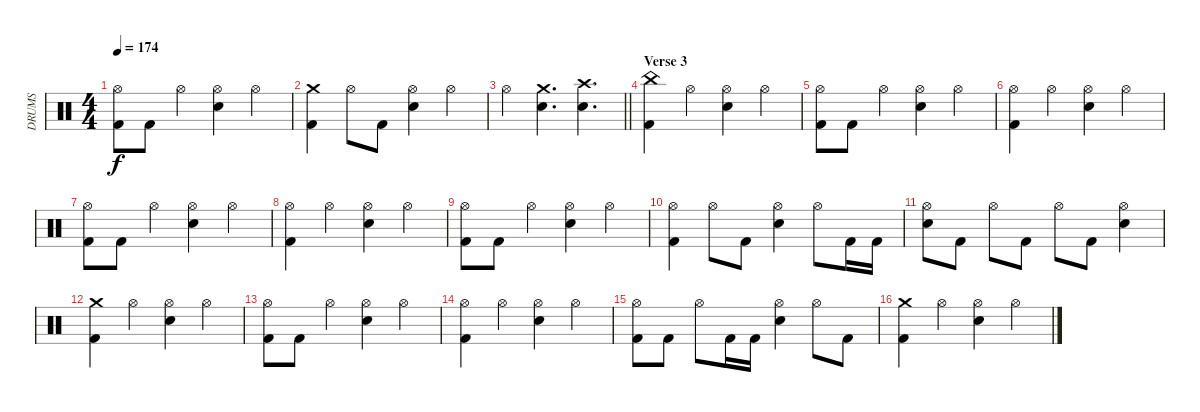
\track ("DRUMS" "DRUMS") {instrument percussion}
\staff {score}
\articulation defaults
\ts (4 4)
\tempo 174
\clef neutral
\ks c
("Hi-Hat (open)" "Kick (hit) 2").8{dy f} "Kick (hit) 2".8 "Hi-Hat (open)".4 ("Hi-Hat (open)" "Snare (hit) 2").4 "Hi-Hat (open)".4 |
("Crash medium (hit)" "Kick (hit) 2").4 "Hi-Hat (open)".8 "Kick (hit) 2".8 ("Hi-Hat (open)" "Snare (hit) 2").4 "Hi-Hat (open)".4 |
\barLineRight lightlight "Hi-Hat (open)".4
("Crash medium (hit)" "Snare (hit) 2").4{d} ("Crash high (hit)" "Snare (hit) 2").4{d} |
\section ("" "Verse 3")
("China (hit)" "Kick (hit) 2").4 "Hi-Hat (open)".4 ("Hi-Hat (open)" "Snare (hit) 2").4 "Hi-Hat (open)".4 |
("Hi-Hat (open)" "Kick (hit) 2").8 "Kick (hit) 2".8 "Hi-Hat (open)".4 ("Hi-Hat (open)" "Snare (hit) 2").4 "Hi-Hat (open)".4 |
("Hi-Hat (open)" "Kick (hit) 2").4 "Hi-Hat (open)".4 ("Hi-Hat (open)" "Snare (hit) 2").4 "Hi-Hat (open)".4 |
("Hi-Hat (open)" "Kick (hit) 2").8 "Kick (hit) 2".8 "Hi-Hat (open)".4 ("Hi-Hat (open)" "Snare (hit) 2").4 "Hi-Hat (open)".4 |
("Hi-Hat (open)" "Kick (hit) 2").4 "Hi-Hat (open)".4 ("Hi-Hat (open)" "Snare (hit) 2").4 "Hi-Hat (open)".4 |
("Hi-Hat (open)" "Kick (hit) 2").8 "Kick (hit) 2".8 "Hi-Hat (open)".4 ("Hi-Hat (open)" "Snare (hit) 2").4 "Hi-Hat (open)".4 |
("Hi-Hat (open)" "Kick (hit) 2").4 "Hi-Hat (open)".8 "Kick (hit) 2".8 ("Hi-Hat (open)" "Snare (hit) 2").4 "Hi-Hat (open)".8 "Kick (hit) 2".16 "Kick (hit) 2".16 |
("Hi-Hat (open)" "Snare (hit) 2").8 "Kick (hit) 2".8 "Hi-Hat (open)".8 "Kick (hit) 2".8 "Hi-Hat (open)".8 "Kick (hit) 2".8 ("Hi-Hat (open)" "Snare (hit) 2").4 |
("Crash medium (hit)" "Kick (hit) 2").4 "Hi-Hat (open)".4 ("Hi-Hat (open)" "Snare (hit) 2").4 "Hi-Hat (open)".4 |
("Hi-Hat (open)" "Kick (hit) 2").8 "Kick (hit) 2".8 "Hi-Hat (open)".4 ("Hi-Hat (open)" "Snare (hit) 2").4 "Hi-Hat (open)".4 |
("Hi-Hat (open)" "Kick (hit) 2").4 "Hi-Hat (open)".4 ("Hi-Hat (open)" "Snare (hit) 2").4 "Hi-Hat (open)".4 |
("Hi-Hat (open)" "Kick (hit) 2").8 "Kick (hit) 2".8 "Hi-Hat (open)".8 "Kick (hit) 2".16 "Kick (hit) 2".16 ("Hi-Hat (open)" "Snare (hit) 2").4 "Hi-Hat (open)".8 "Kick (hit) 2".8 |
("Crash medium (hit)" "Kick (hit) 2").4 "Hi-Hat (open)".4 ("Hi-Hat (open)" "Snare (hit) 2").4 "Hi-Hat (open)".4
